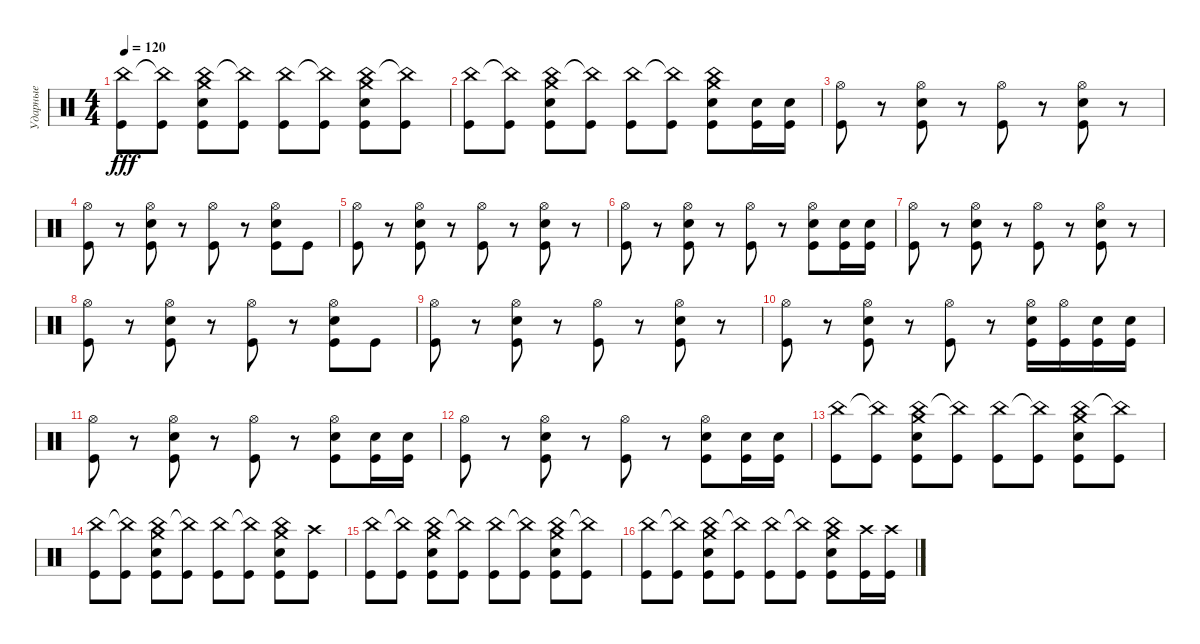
\track ("Ударные" "Ударные") {instrument percussion}
\staff {score}
\articulation defaults
\ts (4 4)
\tempo 120
\clef neutral
\ks c
("China (hit)" "Kick (hit)").8{dy fff} ("China (hit)"{t} "Kick (hit)").8 ("China (hit)" "Crash medium (hit)" "Snare (hit) 2" "Kick (hit)").8 ("China (hit)"{t} "Kick (hit)").8 ("China (hit)" "Kick (hit)").8 ("China (hit)"{t} "Kick (hit)").8 ("China (hit)" "Crash medium (hit)" "Snare (hit) 2" "Kick (hit)").8 ("China (hit)"{t} "Kick (hit)").8 |
("China (hit)" "Kick (hit)").8 ("China (hit)"{t} "Kick (hit)").8 ("China (hit)" "Crash medium (hit)" "Snare (hit) 2" "Kick (hit)").8 ("China (hit)"{t} "Kick (hit)").8 ("China (hit)" "Kick (hit)").8 ("China (hit)"{t} "Kick (hit)").8 ("China (hit)" "Crash medium (hit)" "Snare (hit) 2" "Kick (hit)").8 ("Snare (hit) 2" "Kick (hit)").16 ("Snare (hit) 2" "Kick (hit)").16 |
("Hi-Hat (open)" "Kick (hit)").8 r.8 ("Hi-Hat (open)" "Snare (hit) 2" "Kick (hit)").8 r.8 ("Hi-Hat (open)" "Kick (hit)").8 r.8 ("Hi-Hat (open)" "Snare (hit) 2" "Kick (hit)").8 r.8 |
("Hi-Hat (open)" "Kick (hit)").8 r.8 ("Hi-Hat (open)" "Snare (hit) 2" "Kick (hit)").8 r.8 ("Hi-Hat (open)" "Kick (hit)").8 r.8 ("Hi-Hat (open)" "Snare (hit) 2" "Kick (hit)").8 "Kick (hit)".8 |
("Hi-Hat (open)" "Kick (hit)").8 r.8 ("Hi-Hat (open)" "Snare (hit) 2" "Kick (hit)").8 r.8 ("Hi-Hat (open)" "Kick (hit)").8 r.8 ("Hi-Hat (open)" "Snare (hit) 2" "Kick (hit)").8 r.8 |
("Hi-Hat (open)" "Kick (hit)").8 r.8 ("Hi-Hat (open)" "Snare (hit) 2" "Kick (hit)").8 r.8 ("Hi-Hat (open)" "Kick (hit)").8 r.8 ("Hi-Hat (open)" "Snare (hit) 2" "Kick (hit)").8 ("Snare (hit) 2" "Kick (hit)").16 ("Snare (hit) 2" "Kick (hit)").16 |
("Hi-Hat (open)" "Kick (hit)").8 r.8 ("Hi-Hat (open)" "Snare (hit) 2" "Kick (hit)").8 r.8 ("Hi-Hat (open)" "Kick (hit)").8 r.8 ("Hi-Hat (open)" "Snare (hit) 2" "Kick (hit)").8 r.8 |
("Hi-Hat (open)" "Kick (hit)").8 r.8 ("Hi-Hat (open)" "Snare (hit) 2" "Kick (hit)").8 r.8 ("Hi-Hat (open)" "Kick (hit)").8 r.8 ("Hi-Hat (open)" "Snare (hit) 2" "Kick (hit)").8 "Kick (hit)".8 |
("Hi-Hat (open)" "Kick (hit)").8 r.8 ("Hi-Hat (open)" "Snare (hit) 2" "Kick (hit)").8 r.8 ("Hi-Hat (open)" "Kick (hit)").8 r.8 ("Hi-Hat (open)" "Snare (hit) 2" "Kick (hit)").8 r.8 |
("Hi-Hat (open)" "Kick (hit)").8 r.8 ("Hi-Hat (open)" "Snare (hit) 2" "Kick (hit)").8 r.8 ("Hi-Hat (open)" "Kick (hit)").8 r.8 ("Hi-Hat (open)" "Snare (hit) 2" "Kick (hit)").16 ("Hi-Hat (open)" "Kick (hit)").16 ("Snare (hit) 2" "Kick (hit)").16 ("Snare (hit) 2" "Kick (hit)").16 |
("Hi-Hat (open)" "Kick (hit)").8 r.8 ("Hi-Hat (open)" "Snare (hit) 2" "Kick (hit)").8 r.8 ("Hi-Hat (open)" "Kick (hit)").8 r.8 ("Hi-Hat (open)" "Snare (hit) 2" "Kick (hit)").8 ("Snare (hit) 2" "Kick (hit)").16 ("Snare (hit) 2" "Kick (hit)").16 |
("Hi-Hat (open)" "Kick (hit)").8 r.8 ("Hi-Hat (open)" "Snare (hit) 2" "Kick (hit)").8 r.8 ("Hi-Hat (open)" "Kick (hit)").8 r.8 ("Hi-Hat (open)" "Snare (hit) 2" "Kick (hit)").8 ("Snare (hit) 2" "Kick (hit)").16 ("Snare (hit) 2" "Kick (hit)").16 |
("China (hit)" "Kick (hit)").8 ("China (hit)"{t} "Kick (hit)").8 ("China (hit)" "Crash medium (hit)" "Snare (hit) 2" "Kick (hit)").8 ("China (hit)"{t} "Kick (hit)").8 ("China (hit)" "Kick (hit)").8 ("China (hit)"{t} "Kick (hit)").8 ("China (hit)" "Crash medium (hit)" "Snare (hit) 2" "Kick (hit)").8 ("China (hit)"{t} "Kick (hit)").8 |
("China (hit)" "Kick (hit)").8 ("China (hit)"{t} "Kick (hit)").8 ("China (hit)" "Crash medium (hit)" "Snare (hit) 2" "Kick (hit)").8 ("China (hit)"{t} "Kick (hit)").8 ("China (hit)" "Kick (hit)").8 ("China (hit)"{t} "Kick (hit)").8 ("China (hit)" "Crash medium (hit)" "Snare (hit) 2" "Kick (hit)").8 ("Crash high (hit)" "Kick (hit)").8 |
("China (hit)" "Kick (hit)").8 ("China (hit)"{t} "Kick (hit)").8 ("China (hit)" "Crash medium (hit)" "Snare (hit) 2" "Kick (hit)").8 ("China (hit)"{t} "Kick (hit)").8 ("China (hit)" "Kick (hit)").8 ("China (hit)"{t} "Kick (hit)").8 ("China (hit)" "Crash medium (hit)" "Snare (hit) 2" "Kick (hit)").8 ("China (hit)"{t} "Kick (hit)").8 |
("China (hit)" "Kick (hit)").8 ("China (hit)"{t} "Kick (hit)").8 ("China (hit)" "Crash medium (hit)" "Snare (hit) 2" "Kick (hit)").8 ("China (hit)"{t} "Kick (hit)").8 ("China (hit)" "Kick (hit)").8 ("China (hit)"{t} "Kick (hit)").8 ("China (hit)" "Crash medium (hit)" "Snare (hit) 2" "Kick (hit)").8 ("Crash high (hit)" "Kick (hit)").16 ("Crash high (hit)" "Kick (hit)").16
